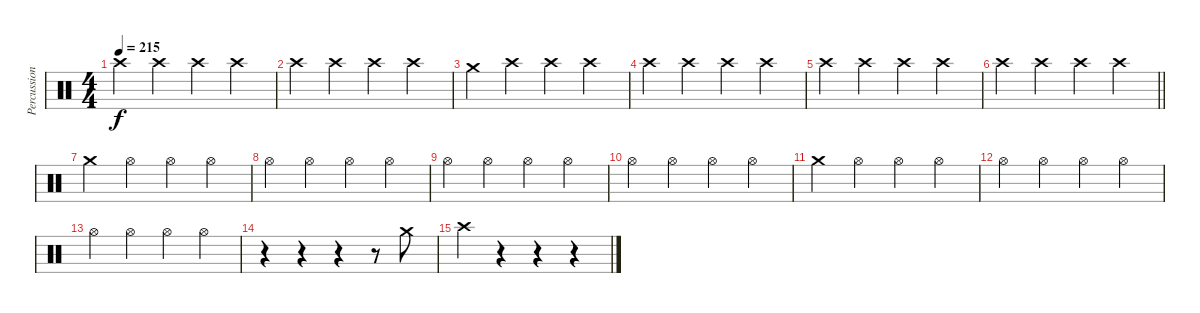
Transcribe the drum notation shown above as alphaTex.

\track ("Percussion" "Percussion") {instrument percussion}
\staff {score}
\articulation defaults
\ts (4 4)
\tempo 215
\clef neutral
\ks c "Crash high (hit)".4{dy f} "Crash high (hit)".4 "Crash high (hit)".4 "Crash high (hit)".4
|
"Crash high (hit)".4 "Crash high (hit)".4 "Crash high (hit)".4 "Crash high (hit)".4 |
"Crash medium (hit)".4 "Crash high (hit)".4 "Crash high (hit)".4 "Crash high (hit)".4 |
"Crash high (hit)".4 "Crash high (hit)".4 "Crash high (hit)".4 "Crash high (hit)".4 |
"Crash high (hit)".4 "Crash high (hit)".4 "Crash high (hit)".4 "Crash high (hit)".4 |
\barLineRight lightlight "Crash high (hit)".4 "Crash high (hit)".4 "Crash high (hit)".4 "Crash high (hit)".4
|
"Crash medium (hit)".4 "Hi-Hat (open)".4 "Hi-Hat (open)".4 "Hi-Hat (open)".4 |
"Hi-Hat (open)".4 "Hi-Hat (open)".4 "Hi-Hat (open)".4 "Hi-Hat (open)".4 |
"Hi-Hat (open)".4 "Hi-Hat (open)".4 "Hi-Hat (open)".4 "Hi-Hat (open)".4 |
"Hi-Hat (open)".4 "Hi-Hat (open)".4 "Hi-Hat (open)".4 "Hi-Hat (open)".4 |
"Crash medium (hit)".4 "Hi-Hat (open)".4 "Hi-Hat (open)".4 "Hi-Hat (open)".4 |
"Hi-Hat (open)".4 "Hi-Hat (open)".4 "Hi-Hat (open)".4 "Hi-Hat (open)".4 |
"Hi-Hat (open)".4 "Hi-Hat (open)".4 "Hi-Hat (open)".4 "Hi-Hat (open)".4 |
r.4 r.4 r.4 r.8 "Crash medium (hit)".8 |
"Crash high (hit)".4 r.4 r.4 r.4
